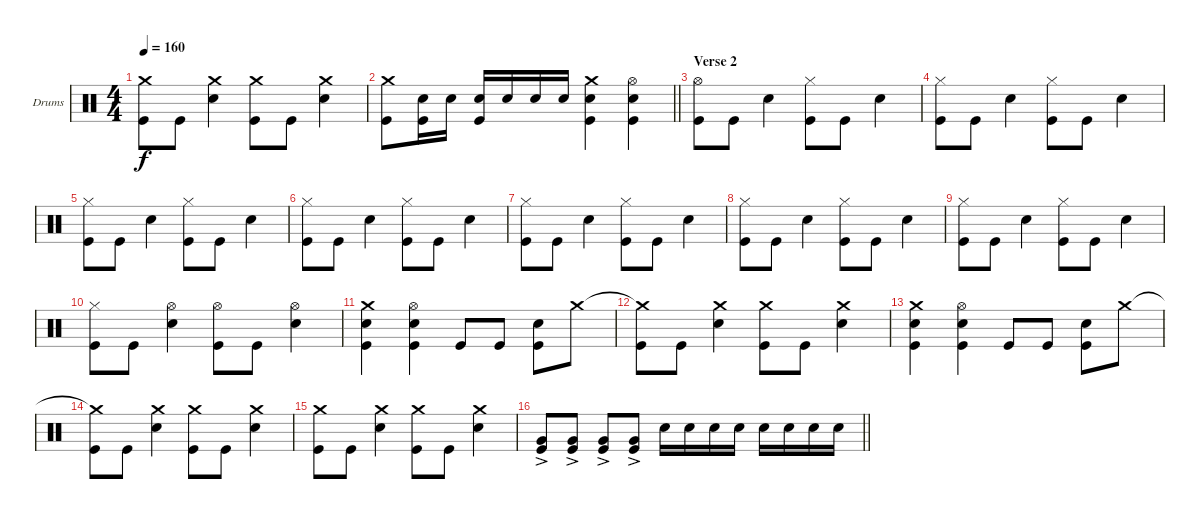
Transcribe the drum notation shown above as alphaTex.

\bracketExtendMode groupsimilarinstruments
\firstSystemTrackNameOrientation horizontal
\otherSystemsTrackNameOrientation horizontal
\track ("Drum" "Drums") {instrument percussion}
\staff {score}
\articulation defaults
\ts (4 4)
\tempo 160
\clef neutral
\ks c
("Crash medium (hit)" "Kick (hit)").8{dy f} "Kick (hit)".8 ("Crash medium (hit)" "Snare (hit) 2").4 ("Crash medium (hit)" "Kick (hit)").8 "Kick (hit)".8 ("Crash medium (hit)" "Snare (hit) 2").4 |
\barLineRight lightlight
("Crash medium (hit)" "Kick (hit)").8 ("Snare (hit) 2" "Kick (hit)").16 "Snare (hit) 2".16 ("Snare (hit) 2" "Kick (hit)").16 "Snare (hit) 2".16 "Snare (hit) 2".16 "Snare (hit) 2".16 ("Crash medium (hit)" "Snare (hit) 2" "Kick (hit)").4 ("Hi-Hat (open)" "Snare (hit) 2" "Kick (hit)").4 |
\section ("" "Verse 2")
("Hi-Hat (open)" "Kick (hit)").8 "Kick (hit)".8 "Snare (hit) 2".4 ("Hi-Hat (closed)" "Kick (hit)").8 "Kick (hit)".8 "Snare (hit) 2".4 |
("Hi-Hat (closed)" "Kick (hit)").8 "Kick (hit)".8 "Snare (hit) 2".4 ("Hi-Hat (closed)" "Kick (hit)").8 "Kick (hit)".8 "Snare (hit) 2".4 |
("Hi-Hat (closed)" "Kick (hit)").8 "Kick (hit)".8 "Snare (hit) 2".4 ("Hi-Hat (closed)" "Kick (hit)").8 "Kick (hit)".8 "Snare (hit) 2".4 |
("Hi-Hat (closed)" "Kick (hit)").8 "Kick (hit)".8 "Snare (hit) 2".4 ("Hi-Hat (closed)" "Kick (hit)").8 "Kick (hit)".8 "Snare (hit) 2".4 |
("Hi-Hat (closed)" "Kick (hit)").8 "Kick (hit)".8 "Snare (hit) 2".4 ("Hi-Hat (closed)" "Kick (hit)").8 "Kick (hit)".8 "Snare (hit) 2".4 |
("Hi-Hat (closed)" "Kick (hit)").8 "Kick (hit)".8 "Snare (hit) 2".4 ("Hi-Hat (closed)" "Kick (hit)").8 "Kick (hit)".8 "Snare (hit) 2".4 |
("Hi-Hat (closed)" "Kick (hit)").8 "Kick (hit)".8 "Snare (hit) 2".4 ("Hi-Hat (closed)" "Kick (hit)").8 "Kick (hit)".8 "Snare (hit) 2".4 |
("Hi-Hat (closed)" "Kick (hit)").8 "Kick (hit)".8 ("Hi-Hat (open)" "Snare (hit) 2").4 ("Hi-Hat (open)" "Kick (hit)").8 "Kick (hit)".8 ("Hi-Hat (open)" "Snare (hit) 2").4 |
("Crash medium (hit)" "Snare (hit) 2" "Kick (hit)").4 ("Hi-Hat (open)" "Snare (hit) 2" "Kick (hit)").4 "Kick (hit)".8 "Kick (hit)".8 ("Snare (hit) 2" "Kick (hit)").8 "Crash medium (hit)".8 |
("Crash medium (hit)"{t} "Kick (hit)").8 "Kick (hit)".8 ("Crash medium (hit)" "Snare (hit) 2").4 ("Crash medium (hit)" "Kick (hit)").8 "Kick (hit)".8 ("Crash medium (hit)" "Snare (hit) 2").4 |
("Crash medium (hit)" "Snare (hit) 2" "Kick (hit)").4 ("Hi-Hat (open)" "Snare (hit) 2" "Kick (hit)").4 "Kick (hit)".8 "Kick (hit)".8 ("Snare (hit) 2" "Kick (hit)").8 "Crash medium (hit)".8 |
("Crash medium (hit)"{t} "Kick (hit)").8 "Kick (hit)".8 ("Crash medium (hit)" "Snare (hit) 2").4 ("Crash medium (hit)" "Kick (hit)").8 "Kick (hit)".8 ("Crash medium (hit)" "Snare (hit) 2").4 |
("Crash medium (hit)" "Kick (hit)").8 "Kick (hit)".8 ("Crash medium (hit)" "Snare (hit) 2").4 ("Crash medium (hit)" "Kick (hit)").8 "Kick (hit)".8 ("Crash medium (hit)" "Snare (hit) 2").4 |
\barLineRight lightlight
("Very Low Tom (hit)"{ac} "Kick (hit)").8 ("Very Low Tom (hit)"{ac} "Kick (hit)").8 ("Very Low Tom (hit)"{ac} "Kick (hit)").8 ("Very Low Tom (hit)"{ac} "Kick (hit)").8 "Snare (hit) 2".16 "Snare (hit) 2".16 "Snare (hit) 2".16 "Snare (hit) 2".16 "Snare (hit) 2".16 "Snare (hit) 2".16 "Snare (hit) 2".16 "Snare (hit) 2".16
